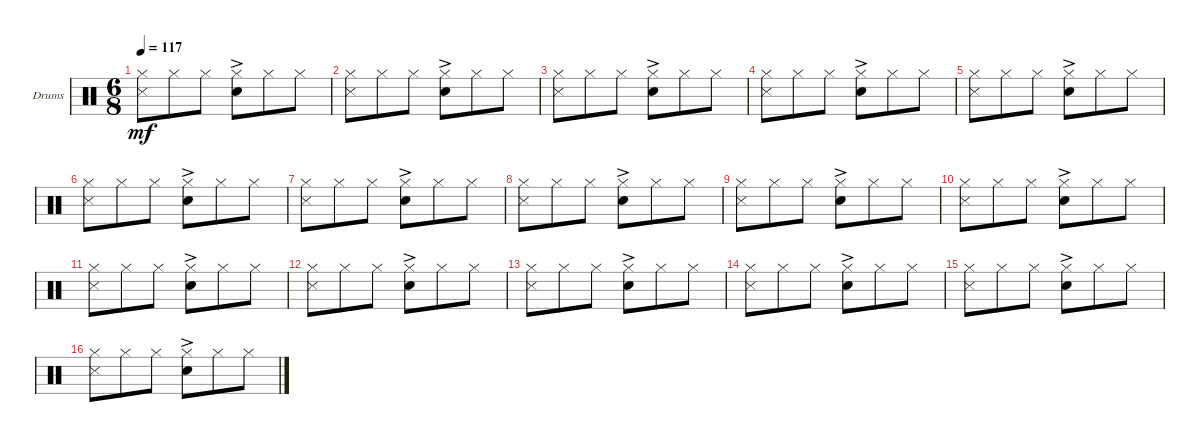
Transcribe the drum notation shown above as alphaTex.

\defaultSystemsLayout 4
\bracketExtendMode groupsimilarinstruments
\firstSystemTrackNameOrientation horizontal
\otherSystemsTrackNameOrientation horizontal
\track ("Drumkit" "Drums") {instrument percussion}
\staff {score}
\articulation defaults
\ts (6 8)
\tempo 117
\clef neutral
\ks c
("Hi-Hat (closed)" "Snare (side stick) 3").8{dy mf} "Hi-Hat (closed)".8 "Hi-Hat (closed)".8 ("Hi-Hat (closed)" "Snare (hit) 2"{ac}).8 "Hi-Hat (closed)".8 "Hi-Hat (closed)".8 |
("Hi-Hat (closed)" "Snare (side stick) 3").8 "Hi-Hat (closed)".8 "Hi-Hat (closed)".8 ("Hi-Hat (closed)" "Snare (hit) 2"{ac}).8 "Hi-Hat (closed)".8 "Hi-Hat (closed)".8 |
("Hi-Hat (closed)" "Snare (side stick) 3").8 "Hi-Hat (closed)".8 "Hi-Hat (closed)".8 ("Hi-Hat (closed)" "Snare (hit) 2"{ac}).8 "Hi-Hat (closed)".8 "Hi-Hat (closed)".8 |
("Hi-Hat (closed)" "Snare (side stick) 3").8 "Hi-Hat (closed)".8 "Hi-Hat (closed)".8 ("Hi-Hat (closed)" "Snare (hit) 2"{ac}).8 "Hi-Hat (closed)".8 "Hi-Hat (closed)".8 |
("Hi-Hat (closed)" "Snare (side stick) 3").8 "Hi-Hat (closed)".8 "Hi-Hat (closed)".8 ("Hi-Hat (closed)" "Snare (hit) 2"{ac}).8 "Hi-Hat (closed)".8 "Hi-Hat (closed)".8 |
("Hi-Hat (closed)" "Snare (side stick) 3").8 "Hi-Hat (closed)".8 "Hi-Hat (closed)".8 ("Hi-Hat (closed)" "Snare (hit) 2"{ac}).8 "Hi-Hat (closed)".8 "Hi-Hat (closed)".8 |
("Hi-Hat (closed)" "Snare (side stick) 3").8 "Hi-Hat (closed)".8 "Hi-Hat (closed)".8 ("Hi-Hat (closed)" "Snare (hit) 2"{ac}).8 "Hi-Hat (closed)".8 "Hi-Hat (closed)".8 |
("Hi-Hat (closed)" "Snare (side stick) 3").8 "Hi-Hat (closed)".8 "Hi-Hat (closed)".8 ("Hi-Hat (closed)" "Snare (hit) 2"{ac}).8 "Hi-Hat (closed)".8 "Hi-Hat (closed)".8 |
("Hi-Hat (closed)" "Snare (side stick) 3").8 "Hi-Hat (closed)".8 "Hi-Hat (closed)".8 ("Hi-Hat (closed)" "Snare (hit) 2"{ac}).8 "Hi-Hat (closed)".8 "Hi-Hat (closed)".8 |
("Hi-Hat (closed)" "Snare (side stick) 3").8 "Hi-Hat (closed)".8 "Hi-Hat (closed)".8 ("Hi-Hat (closed)" "Snare (hit) 2"{ac}).8 "Hi-Hat (closed)".8 "Hi-Hat (closed)".8 |
("Hi-Hat (closed)" "Snare (side stick) 3").8 "Hi-Hat (closed)".8 "Hi-Hat (closed)".8 ("Hi-Hat (closed)" "Snare (hit) 2"{ac}).8 "Hi-Hat (closed)".8 "Hi-Hat (closed)".8 |
("Hi-Hat (closed)" "Snare (side stick) 3").8 "Hi-Hat (closed)".8 "Hi-Hat (closed)".8 ("Hi-Hat (closed)" "Snare (hit) 2"{ac}).8 "Hi-Hat (closed)".8 "Hi-Hat (closed)".8 |
("Hi-Hat (closed)" "Snare (side stick) 3").8 "Hi-Hat (closed)".8 "Hi-Hat (closed)".8 ("Hi-Hat (closed)" "Snare (hit) 2"{ac}).8 "Hi-Hat (closed)".8 "Hi-Hat (closed)".8 |
("Hi-Hat (closed)" "Snare (side stick) 3").8 "Hi-Hat (closed)".8 "Hi-Hat (closed)".8 ("Hi-Hat (closed)" "Snare (hit) 2"{ac}).8 "Hi-Hat (closed)".8 "Hi-Hat (closed)".8 |
("Hi-Hat (closed)" "Snare (side stick) 3").8 "Hi-Hat (closed)".8 "Hi-Hat (closed)".8 ("Hi-Hat (closed)" "Snare (hit) 2"{ac}).8 "Hi-Hat (closed)".8 "Hi-Hat (closed)".8 |
("Hi-Hat (closed)" "Snare (side stick) 3").8 "Hi-Hat (closed)".8 "Hi-Hat (closed)".8 ("Hi-Hat (closed)" "Snare (hit) 2"{ac}).8 "Hi-Hat (closed)".8 "Hi-Hat (closed)".8
